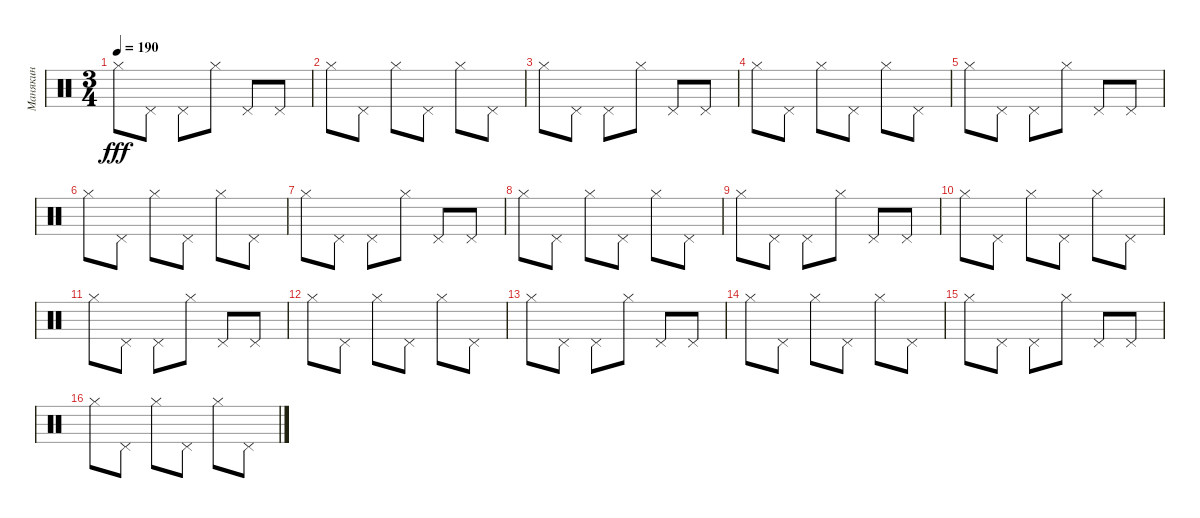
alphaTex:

\track ("Манякин" "Манякин") {instrument percussion}
\staff {score}
\articulation defaults
\ts (3 4)
\tempo 190
\clef neutral
\ks c "Hi-Hat (closed)".8{dy fff} "Pedal Hi-Hat (hit)".8 "Pedal Hi-Hat (hit)".8 "Hi-Hat (closed)".8 "Pedal Hi-Hat (hit)".8 "Pedal Hi-Hat (hit)".8
|
"Hi-Hat (closed)".8 "Pedal Hi-Hat (hit)".8 "Hi-Hat (closed)".8 "Pedal Hi-Hat (hit)".8 "Hi-Hat (closed)".8 "Pedal Hi-Hat (hit)".8 |
"Hi-Hat (closed)".8 "Pedal Hi-Hat (hit)".8 "Pedal Hi-Hat (hit)".8 "Hi-Hat (closed)".8 "Pedal Hi-Hat (hit)".8 "Pedal Hi-Hat (hit)".8 |
"Hi-Hat (closed)".8 "Pedal Hi-Hat (hit)".8 "Hi-Hat (closed)".8 "Pedal Hi-Hat (hit)".8 "Hi-Hat (closed)".8 "Pedal Hi-Hat (hit)".8 |
"Hi-Hat (closed)".8 "Pedal Hi-Hat (hit)".8 "Pedal Hi-Hat (hit)".8 "Hi-Hat (closed)".8 "Pedal Hi-Hat (hit)".8 "Pedal Hi-Hat (hit)".8 |
"Hi-Hat (closed)".8 "Pedal Hi-Hat (hit)".8 "Hi-Hat (closed)".8 "Pedal Hi-Hat (hit)".8 "Hi-Hat (closed)".8 "Pedal Hi-Hat (hit)".8 |
"Hi-Hat (closed)".8 "Pedal Hi-Hat (hit)".8 "Pedal Hi-Hat (hit)".8 "Hi-Hat (closed)".8 "Pedal Hi-Hat (hit)".8 "Pedal Hi-Hat (hit)".8 |
"Hi-Hat (closed)".8 "Pedal Hi-Hat (hit)".8 "Hi-Hat (closed)".8 "Pedal Hi-Hat (hit)".8 "Hi-Hat (closed)".8 "Pedal Hi-Hat (hit)".8 |
"Hi-Hat (closed)".8 "Pedal Hi-Hat (hit)".8 "Pedal Hi-Hat (hit)".8 "Hi-Hat (closed)".8 "Pedal Hi-Hat (hit)".8 "Pedal Hi-Hat (hit)".8 |
"Hi-Hat (closed)".8 "Pedal Hi-Hat (hit)".8 "Hi-Hat (closed)".8 "Pedal Hi-Hat (hit)".8 "Hi-Hat (closed)".8 "Pedal Hi-Hat (hit)".8 |
"Hi-Hat (closed)".8 "Pedal Hi-Hat (hit)".8 "Pedal Hi-Hat (hit)".8 "Hi-Hat (closed)".8 "Pedal Hi-Hat (hit)".8 "Pedal Hi-Hat (hit)".8 |
"Hi-Hat (closed)".8 "Pedal Hi-Hat (hit)".8 "Hi-Hat (closed)".8 "Pedal Hi-Hat (hit)".8 "Hi-Hat (closed)".8 "Pedal Hi-Hat (hit)".8 |
"Hi-Hat (closed)".8 "Pedal Hi-Hat (hit)".8 "Pedal Hi-Hat (hit)".8 "Hi-Hat (closed)".8 "Pedal Hi-Hat (hit)".8 "Pedal Hi-Hat (hit)".8 |
"Hi-Hat (closed)".8 "Pedal Hi-Hat (hit)".8 "Hi-Hat (closed)".8 "Pedal Hi-Hat (hit)".8 "Hi-Hat (closed)".8 "Pedal Hi-Hat (hit)".8 |
"Hi-Hat (closed)".8 "Pedal Hi-Hat (hit)".8 "Pedal Hi-Hat (hit)".8 "Hi-Hat (closed)".8 "Pedal Hi-Hat (hit)".8 "Pedal Hi-Hat (hit)".8 |
"Hi-Hat (closed)".8 "Pedal Hi-Hat (hit)".8 "Hi-Hat (closed)".8 "Pedal Hi-Hat (hit)".8 "Hi-Hat (closed)".8 "Pedal Hi-Hat (hit)".8
